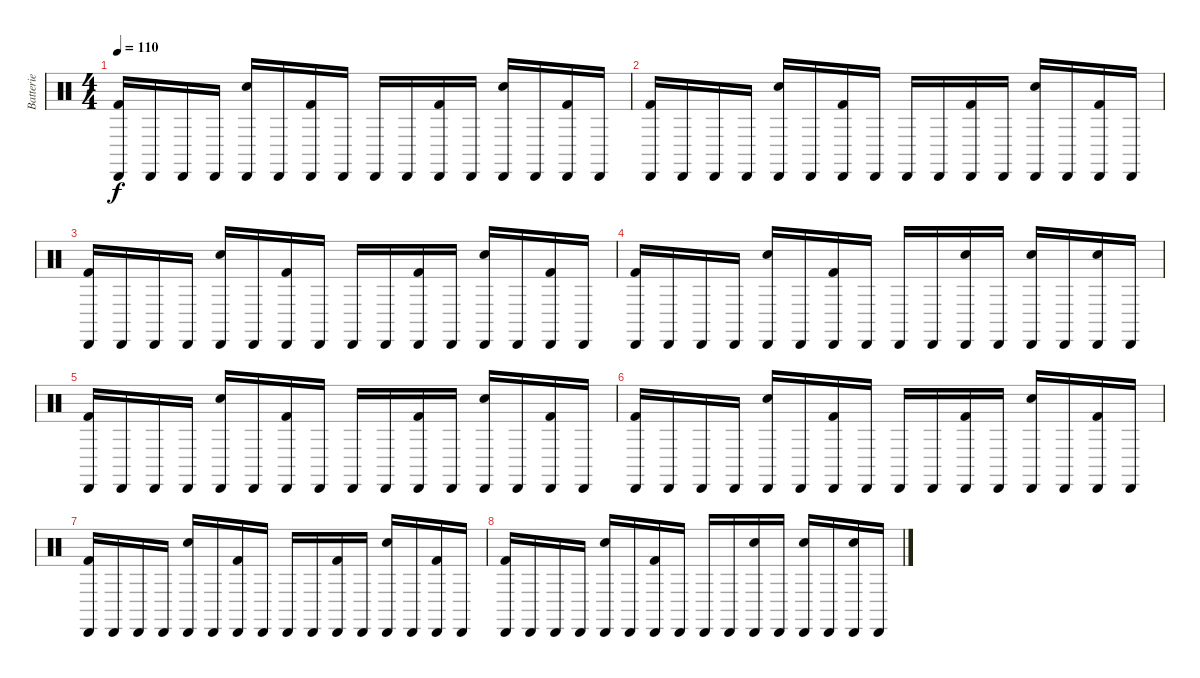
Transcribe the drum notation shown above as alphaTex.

\track ("Batterie" "Batterie") {instrument percussion}
\staff {score}
\articulation defaults
\ts (4 4)
\tempo 110
\clef neutral
\ks c
("Cabasa (hit)" "Kick (hit) 2").16{dy f volume 9} "Cabasa (hit)".16 "Cabasa (hit)".16 "Cabasa (hit)".16 ("Cabasa (hit)" "Snare (hit) 2").16 "Cabasa (hit)".16 ("Cabasa (hit)" "Kick (hit) 2").16 "Cabasa (hit)".16 "Cabasa (hit)".16 "Cabasa (hit)".16 ("Cabasa (hit)" "Kick (hit) 2").16 "Cabasa (hit)".16 ("Cabasa (hit)" "Snare (hit) 2").16 "Cabasa (hit)".16 ("Cabasa (hit)" "Kick (hit) 2").16 "Cabasa (hit)".16 |
("Cabasa (hit)" "Kick (hit) 2").16{volume 8} "Cabasa (hit)".16 "Cabasa (hit)".16 "Cabasa (hit)".16 ("Cabasa (hit)" "Snare (hit) 2").16 "Cabasa (hit)".16 ("Cabasa (hit)" "Kick (hit) 2").16 "Cabasa (hit)".16 "Cabasa (hit)".16 "Cabasa (hit)".16 ("Cabasa (hit)" "Kick (hit) 2").16 "Cabasa (hit)".16 ("Cabasa (hit)" "Snare (hit) 2").16 "Cabasa (hit)".16 ("Cabasa (hit)" "Kick (hit) 2").16 "Cabasa (hit)".16 |
("Cabasa (hit)" "Kick (hit) 2").16{volume 7} "Cabasa (hit)".16 "Cabasa (hit)".16 "Cabasa (hit)".16 ("Cabasa (hit)" "Snare (hit) 2").16 "Cabasa (hit)".16 ("Cabasa (hit)" "Kick (hit) 2").16 "Cabasa (hit)".16 "Cabasa (hit)".16 "Cabasa (hit)".16 ("Cabasa (hit)" "Kick (hit) 2").16 "Cabasa (hit)".16 ("Cabasa (hit)" "Snare (hit) 2").16 "Cabasa (hit)".16 ("Cabasa (hit)" "Kick (hit) 2").16 "Cabasa (hit)".16 |
("Cabasa (hit)" "Kick (hit) 2").16{volume 6} "Cabasa (hit)".16 "Cabasa (hit)".16 "Cabasa (hit)".16 ("Cabasa (hit)" "Snare (hit) 2").16 "Cabasa (hit)".16 ("Cabasa (hit)" "Kick (hit) 2").16 "Cabasa (hit)".16 "Cabasa (hit)".16 "Cabasa (hit)".16 ("Cabasa (hit)" "Snare (hit) 2").16 "Cabasa (hit)".16 ("Cabasa (hit)" "Snare (hit) 2").16 "Cabasa (hit)".16 ("Cabasa (hit)" "Snare (hit) 2").16 "Cabasa (hit)".16 |
("Cabasa (hit)" "Kick (hit) 2").16{volume 5} "Cabasa (hit)".16 "Cabasa (hit)".16 "Cabasa (hit)".16 ("Cabasa (hit)" "Snare (hit) 2").16 "Cabasa (hit)".16 ("Cabasa (hit)" "Kick (hit) 2").16 "Cabasa (hit)".16 "Cabasa (hit)".16 "Cabasa (hit)".16 ("Cabasa (hit)" "Kick (hit) 2").16 "Cabasa (hit)".16 ("Cabasa (hit)" "Snare (hit) 2").16 "Cabasa (hit)".16 ("Cabasa (hit)" "Kick (hit) 2").16 "Cabasa (hit)".16 |
("Cabasa (hit)" "Kick (hit) 2").16{volume 4} "Cabasa (hit)".16 "Cabasa (hit)".16 "Cabasa (hit)".16 ("Cabasa (hit)" "Snare (hit) 2").16 "Cabasa (hit)".16 ("Cabasa (hit)" "Kick (hit) 2").16 "Cabasa (hit)".16 "Cabasa (hit)".16 "Cabasa (hit)".16 ("Cabasa (hit)" "Kick (hit) 2").16 "Cabasa (hit)".16 ("Cabasa (hit)" "Snare (hit) 2").16 "Cabasa (hit)".16 ("Cabasa (hit)" "Kick (hit) 2").16 "Cabasa (hit)".16 |
("Cabasa (hit)" "Kick (hit) 2").16{volume 3} "Cabasa (hit)".16 "Cabasa (hit)".16 "Cabasa (hit)".16 ("Cabasa (hit)" "Snare (hit) 2").16 "Cabasa (hit)".16 ("Cabasa (hit)" "Kick (hit) 2").16 "Cabasa (hit)".16 "Cabasa (hit)".16 "Cabasa (hit)".16 ("Cabasa (hit)" "Kick (hit) 2").16 "Cabasa (hit)".16 ("Cabasa (hit)" "Snare (hit) 2").16 "Cabasa (hit)".16 ("Cabasa (hit)" "Kick (hit) 2").16 "Cabasa (hit)".16 |
("Cabasa (hit)" "Kick (hit) 2").16{volume 2} "Cabasa (hit)".16 "Cabasa (hit)".16 "Cabasa (hit)".16 ("Cabasa (hit)" "Snare (hit) 2").16 "Cabasa (hit)".16 ("Cabasa (hit)" "Kick (hit) 2").16 "Cabasa (hit)".16 "Cabasa (hit)".16 "Cabasa (hit)".16 ("Cabasa (hit)" "Snare (hit) 2").16 "Cabasa (hit)".16 ("Cabasa (hit)" "Snare (hit) 2").16 "Cabasa (hit)".16 ("Cabasa (hit)" "Snare (hit) 2").16 "Cabasa (hit)".16
